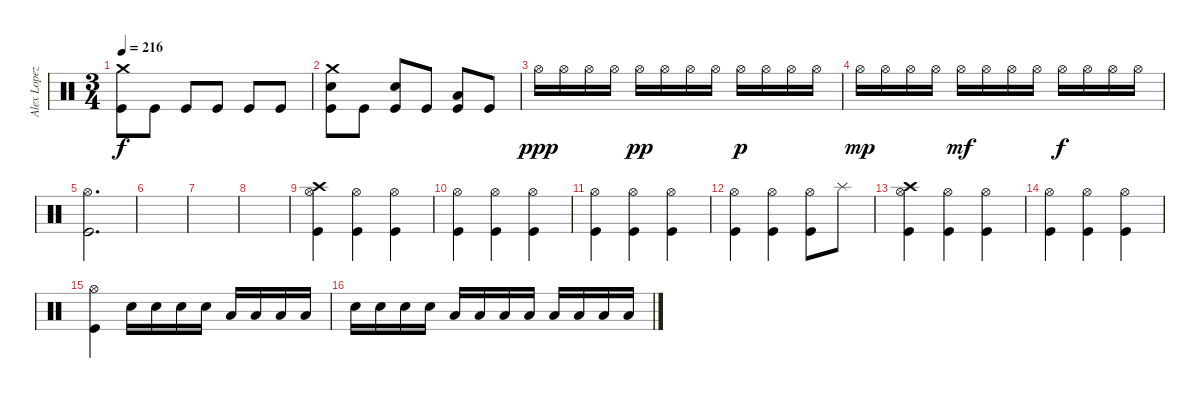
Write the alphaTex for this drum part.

\track ("Alex Lopez" "Alex Lopez") {instrument percussion}
\staff {score}
\articulation defaults
\ts (3 4)
\tempo 216
\clef neutral
\ks c
("Crash medium (hit)" "Kick (hit)").8{dy f} "Kick (hit)".8 "Kick (hit)".8 "Kick (hit)".8 "Kick (hit)".8 "Kick (hit)".8 |
("Crash medium (hit)" "Electric Snare (hit)" "Kick (hit)").8 "Kick (hit)".8 ("Electric Snare (hit)" "Kick (hit)").8 "Kick (hit)".8 ("Low Floor Tom (hit)" "Kick (hit)").8 "Kick (hit)".8 |
"Hi-Hat (open)".16{dy ppp} "Hi-Hat (open)".16 "Hi-Hat (open)".16 "Hi-Hat (open)".16 "Hi-Hat (open)".16{dy pp} "Hi-Hat (open)".16 "Hi-Hat (open)".16 "Hi-Hat (open)".16 "Hi-Hat (open)".16{dy p} "Hi-Hat (open)".16 "Hi-Hat (open)".16 "Hi-Hat (open)".16 |
"Hi-Hat (open)".16{dy mp} "Hi-Hat (open)".16 "Hi-Hat (open)".16 "Hi-Hat (open)".16 "Hi-Hat (open)".16{dy mf} "Hi-Hat (open)".16 "Hi-Hat (open)".16 "Hi-Hat (open)".16 "Hi-Hat (open)".16{dy f} "Hi-Hat (open)".16 "Hi-Hat (open)".16 "Hi-Hat (open)".16 |
("Hi-Hat (open)" "Kick (hit)").2{d} |
|
|
|
("Crash high (hit)" "Hi-Hat (open)" "Kick (hit)").4 ("Hi-Hat (open)" "Kick (hit)").4 ("Hi-Hat (open)" "Kick (hit)").4 |
("Hi-Hat (open)" "Kick (hit)").4 ("Hi-Hat (open)" "Kick (hit)").4 ("Hi-Hat (open)" "Kick (hit)").4 |
("Hi-Hat (open)" "Kick (hit)").4 ("Hi-Hat (open)" "Kick (hit)").4 ("Hi-Hat (open)" "Kick (hit)").4 |
("Hi-Hat (open)" "Kick (hit)").4 ("Hi-Hat (open)" "Kick (hit)").4 ("Hi-Hat (open)" "Kick (hit)").8 "Splash (hit)".8 |
("Crash high (hit)" "Hi-Hat (open)" "Kick (hit)").4 ("Hi-Hat (open)" "Kick (hit)").4 ("Hi-Hat (open)" "Kick (hit)").4 |
("Hi-Hat (open)" "Kick (hit)").4 ("Hi-Hat (open)" "Kick (hit)").4 ("Hi-Hat (open)" "Kick (hit)").4 |
("Hi-Hat (open)" "Kick (hit)").4 "Electric Snare (hit)".16 "Electric Snare (hit)".16 "Electric Snare (hit)".16 "Electric Snare (hit)".16 "Low Tom (hit)".16 "Low Tom (hit)".16 "Low Tom (hit)".16 "Low Tom (hit)".16 |
"Electric Snare (hit)".16 "Electric Snare (hit)".16 "Electric Snare (hit)".16 "Electric Snare (hit)".16 "Low Tom (hit)".16 "Low Tom (hit)".16 "Low Tom (hit)".16 "Low Tom (hit)".16 "Low Floor Tom (hit)".16 "Low Floor Tom (hit)".16 "Low Floor Tom (hit)".16 "Low Floor Tom (hit)".16
